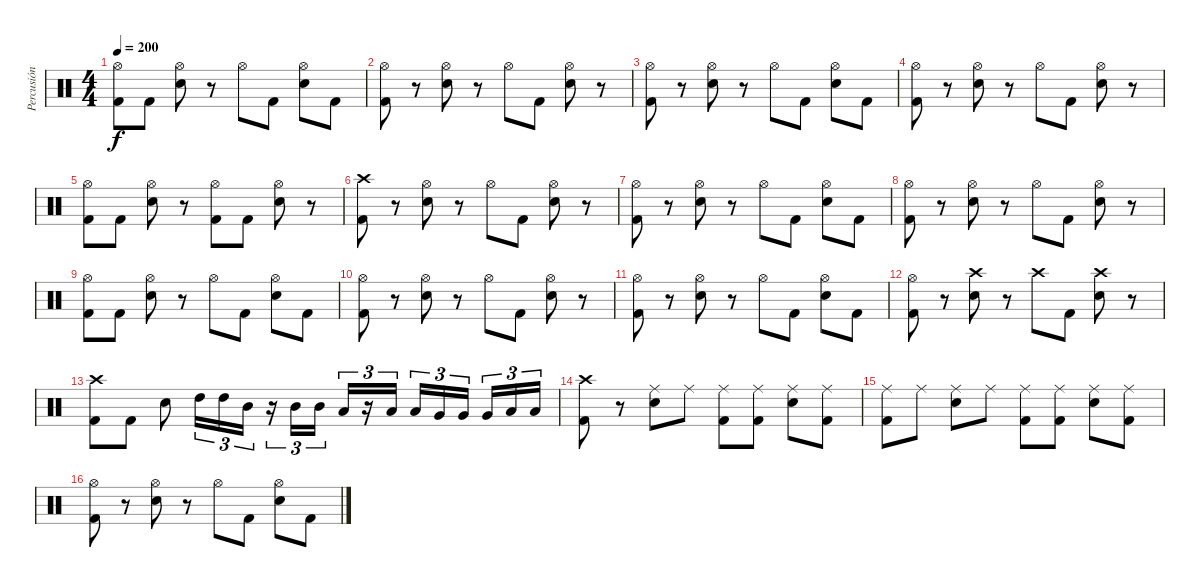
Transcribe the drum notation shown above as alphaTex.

\track ("Percusión" "Percusión") {instrument percussion}
\staff {score}
\articulation defaults
\ts (4 4)
\tempo 200
\clef neutral
\ks c
("Hi-Hat (open)" "Kick (hit) 2").8{dy f} "Kick (hit) 2".8 ("Hi-Hat (open)" "Electric Snare (hit)").8 r.8 "Hi-Hat (open)".8 "Kick (hit) 2".8 ("Hi-Hat (open)" "Electric Snare (hit)").8 "Kick (hit) 2".8 |
("Hi-Hat (open)" "Kick (hit) 2").8 r.8 ("Hi-Hat (open)" "Electric Snare (hit)").8 r.8 "Hi-Hat (open)".8 "Kick (hit) 2".8 ("Hi-Hat (open)" "Electric Snare (hit)").8 r.8 |
("Hi-Hat (open)" "Kick (hit) 2").8 r.8 ("Hi-Hat (open)" "Electric Snare (hit)").8 r.8 "Hi-Hat (open)".8 "Kick (hit) 2".8 ("Hi-Hat (open)" "Electric Snare (hit)").8 "Kick (hit) 2".8 |
("Hi-Hat (open)" "Kick (hit) 2").8 r.8 ("Hi-Hat (open)" "Electric Snare (hit)").8 r.8 "Hi-Hat (open)".8 "Kick (hit) 2".8 ("Hi-Hat (open)" "Electric Snare (hit)").8 r.8 |
("Hi-Hat (open)" "Kick (hit) 2").8 "Kick (hit) 2".8 ("Hi-Hat (open)" "Electric Snare (hit)").8 r.8 ("Hi-Hat (open)" "Kick (hit) 2").8 "Kick (hit) 2".8 ("Hi-Hat (open)" "Electric Snare (hit)").8 r.8 |
("Crash high (hit)" "Kick (hit) 2").8 r.8 ("Hi-Hat (open)" "Electric Snare (hit)").8 r.8 "Hi-Hat (open)".8 "Kick (hit) 2".8 ("Hi-Hat (open)" "Electric Snare (hit)").8 r.8 |
("Hi-Hat (open)" "Kick (hit) 2").8 r.8 ("Hi-Hat (open)" "Electric Snare (hit)").8 r.8 "Hi-Hat (open)".8 "Kick (hit) 2".8 ("Hi-Hat (open)" "Electric Snare (hit)").8 "Kick (hit) 2".8 |
("Hi-Hat (open)" "Kick (hit) 2").8 r.8 ("Hi-Hat (open)" "Electric Snare (hit)").8 r.8 "Hi-Hat (open)".8 "Kick (hit) 2".8 ("Hi-Hat (open)" "Electric Snare (hit)").8 r.8 |
("Hi-Hat (open)" "Kick (hit) 2").8 "Kick (hit) 2".8 ("Hi-Hat (open)" "Electric Snare (hit)").8 r.8 "Hi-Hat (open)".8 "Kick (hit) 2".8 ("Hi-Hat (open)" "Electric Snare (hit)").8 "Kick (hit) 2".8 |
("Hi-Hat (open)" "Kick (hit) 2").8 r.8 ("Hi-Hat (open)" "Electric Snare (hit)").8 r.8 "Hi-Hat (open)".8 "Kick (hit) 2".8 ("Hi-Hat (open)" "Electric Snare (hit)").8 r.8 |
("Hi-Hat (open)" "Kick (hit) 2").8 r.8 ("Hi-Hat (open)" "Electric Snare (hit)").8 r.8 "Hi-Hat (open)".8 "Kick (hit) 2".8 ("Hi-Hat (open)" "Electric Snare (hit)").8 "Kick (hit) 2".8 |
("Hi-Hat (open)" "Kick (hit) 2").8 r.8 ("Crash high (hit)" "Electric Snare (hit)").8 r.8 "Crash high (hit)".8 "Kick (hit) 2".8 ("Crash high (hit)" "Electric Snare (hit)").8 r.8 |
("Crash high (hit)" "Kick (hit) 2").8 "Kick (hit) 2".8 "Electric Snare (hit)".8 "High Tom (hit)".16{tu (3 2)} "High Tom (hit)".16{tu (3 2)} "Mid Tom (hit)".16{tu (3 2)} r.16{tu (3 2)} "Mid Tom (hit)".16{tu (3 2)} "Mid Tom (hit)".16{tu (3 2) beam splitsecondary} "Low Tom (hit)".16{tu (3 2)} r.16{tu (3 2)} "Low Tom (hit)".16{tu (3 2)} "Low Tom (hit)".16{tu (3 2)} "Very Low Tom (hit)".16{tu (3 2)} "Very Low Tom (hit)".16{tu (3 2) beam splitsecondary} "Very Low Tom (hit)".16{tu (3 2)} "Low Floor Tom (hit)".16{tu (3 2)} "Low Floor Tom (hit)".16{tu (3 2)} |
("Crash high (hit)" "Kick (hit) 2").8 r.8 ("Ride (middle)" "Electric Snare (hit)").8 "Ride (middle)".8 ("Ride (middle)" "Kick (hit) 2").8 ("Ride (middle)" "Kick (hit) 2").8 ("Ride (middle)" "Electric Snare (hit)").8 ("Ride (middle)" "Kick (hit) 2").8 |
("Ride (middle)" "Kick (hit) 2").8 "Ride (middle)".8 ("Ride (middle)" "Electric Snare (hit)").8 "Ride (middle)".8 ("Ride (middle)" "Kick (hit) 2").8 ("Ride (middle)" "Kick (hit) 2").8 ("Ride (middle)" "Electric Snare (hit)").8 ("Ride (middle)" "Kick (hit) 2").8 |
("Hi-Hat (open)" "Kick (hit) 2").8 r.8 ("Hi-Hat (open)" "Electric Snare (hit)").8 r.8 "Hi-Hat (open)".8 "Kick (hit) 2".8 ("Hi-Hat (open)" "Electric Snare (hit)").8 "Kick (hit) 2".8
